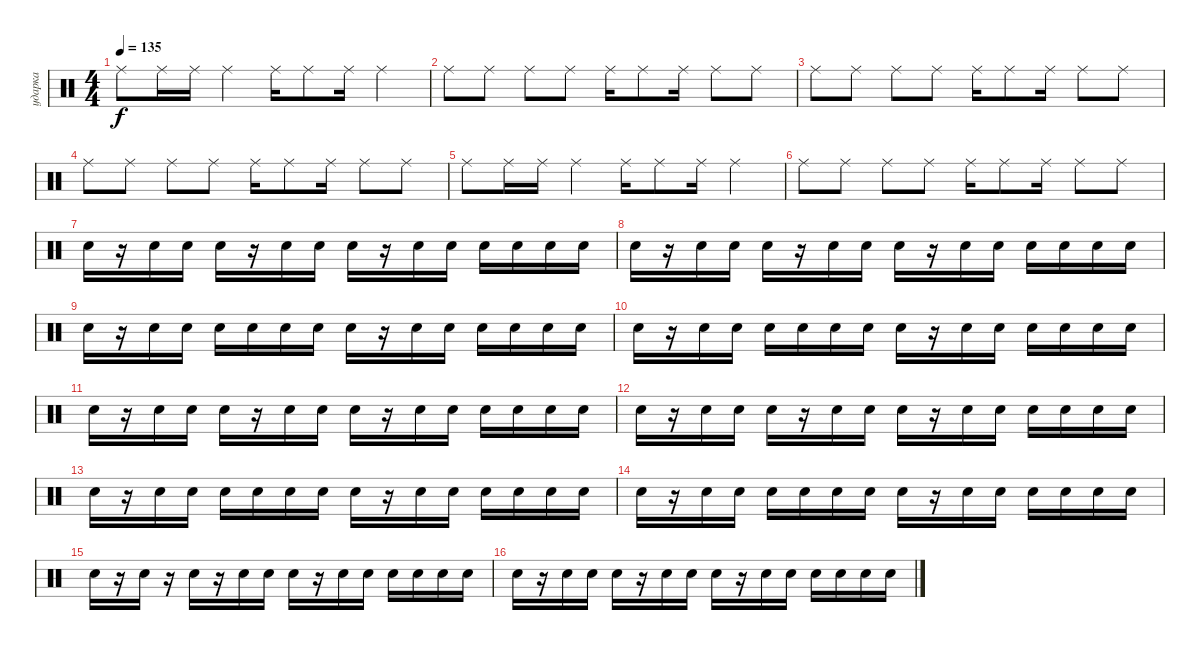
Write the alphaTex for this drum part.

\track ("ударка" "ударка") {instrument percussion}
\staff {score}
\articulation defaults
\ts (4 4)
\tempo 135
\clef neutral
\ks c "Ride (middle)".8{dy f} "Ride (middle)".16 "Ride (middle)".16 "Ride (middle)".4 "Ride (middle)".16 "Ride (middle)".8 "Ride (middle)".16 "Ride (middle)".4
|
"Ride (middle)".8 "Ride (middle)".8 "Ride (middle)".8 "Ride (middle)".8 "Ride (middle)".16 "Ride (middle)".8 "Ride (middle)".16 "Ride (middle)".8 "Ride (middle)".8 |
"Ride (middle)".8 "Ride (middle)".8 "Ride (middle)".8 "Ride (middle)".8 "Ride (middle)".16 "Ride (middle)".8 "Ride (middle)".16 "Ride (middle)".8 "Ride (middle)".8 |
"Ride (middle)".8 "Ride (middle)".8 "Ride (middle)".8 "Ride (middle)".8 "Ride (middle)".16 "Ride (middle)".8 "Ride (middle)".16 "Ride (middle)".8 "Ride (middle)".8 |
"Ride (middle)".8 "Ride (middle)".16 "Ride (middle)".16 "Ride (middle)".4 "Ride (middle)".16 "Ride (middle)".8 "Ride (middle)".16 "Ride (middle)".4 |
"Ride (middle)".8 "Ride (middle)".8 "Ride (middle)".8 "Ride (middle)".8 "Ride (middle)".16 "Ride (middle)".8 "Ride (middle)".16 "Ride (middle)".8 "Ride (middle)".8 |
"Snare (hit) 2".16 r.16 "Snare (hit) 2".16 "Snare (hit) 2".16 "Snare (hit) 2".16 r.16 "Snare (hit) 2".16 "Snare (hit) 2".16 "Snare (hit) 2".16 r.16 "Snare (hit) 2".16 "Snare (hit) 2".16 "Snare (hit) 2".16 "Snare (hit) 2".16 "Snare (hit) 2".16 "Snare (hit) 2".16 |
"Snare (hit) 2".16 r.16 "Snare (hit) 2".16 "Snare (hit) 2".16 "Snare (hit) 2".16 r.16 "Snare (hit) 2".16 "Snare (hit) 2".16 "Snare (hit) 2".16 r.16 "Snare (hit) 2".16 "Snare (hit) 2".16 "Snare (hit) 2".16 "Snare (hit) 2".16 "Snare (hit) 2".16 "Snare (hit) 2".16 |
"Snare (hit) 2".16 r.16 "Snare (hit) 2".16 "Snare (hit) 2".16 "Snare (hit) 2".16 "Snare (hit) 2".16 "Snare (hit) 2".16 "Snare (hit) 2".16 "Snare (hit) 2".16 r.16 "Snare (hit) 2".16 "Snare (hit) 2".16 "Snare (hit) 2".16 "Snare (hit) 2".16 "Snare (hit) 2".16 "Snare (hit) 2".16 |
"Snare (hit) 2".16 r.16 "Snare (hit) 2".16 "Snare (hit) 2".16 "Snare (hit) 2".16 "Snare (hit) 2".16 "Snare (hit) 2".16 "Snare (hit) 2".16 "Snare (hit) 2".16 r.16 "Snare (hit) 2".16 "Snare (hit) 2".16 "Snare (hit) 2".16 "Snare (hit) 2".16 "Snare (hit) 2".16 "Snare (hit) 2".16 |
"Snare (hit) 2".16 r.16 "Snare (hit) 2".16 "Snare (hit) 2".16 "Snare (hit) 2".16 r.16 "Snare (hit) 2".16 "Snare (hit) 2".16 "Snare (hit) 2".16 r.16 "Snare (hit) 2".16 "Snare (hit) 2".16 "Snare (hit) 2".16 "Snare (hit) 2".16 "Snare (hit) 2".16 "Snare (hit) 2".16 |
"Snare (hit) 2".16 r.16 "Snare (hit) 2".16 "Snare (hit) 2".16 "Snare (hit) 2".16 r.16 "Snare (hit) 2".16 "Snare (hit) 2".16 "Snare (hit) 2".16 r.16 "Snare (hit) 2".16 "Snare (hit) 2".16 "Snare (hit) 2".16 "Snare (hit) 2".16 "Snare (hit) 2".16 "Snare (hit) 2".16 |
"Snare (hit) 2".16 r.16 "Snare (hit) 2".16 "Snare (hit) 2".16 "Snare (hit) 2".16 "Snare (hit) 2".16 "Snare (hit) 2".16 "Snare (hit) 2".16 "Snare (hit) 2".16 r.16 "Snare (hit) 2".16 "Snare (hit) 2".16 "Snare (hit) 2".16 "Snare (hit) 2".16 "Snare (hit) 2".16 "Snare (hit) 2".16 |
"Snare (hit) 2".16 r.16 "Snare (hit) 2".16 "Snare (hit) 2".16 "Snare (hit) 2".16 "Snare (hit) 2".16 "Snare (hit) 2".16 "Snare (hit) 2".16 "Snare (hit) 2".16 r.16 "Snare (hit) 2".16 "Snare (hit) 2".16 "Snare (hit) 2".16 "Snare (hit) 2".16 "Snare (hit) 2".16 "Snare (hit) 2".16 |
"Snare (hit) 2".16 r.16 "Snare (hit) 2".16 r.16 "Snare (hit) 2".16 r.16 "Snare (hit) 2".16 "Snare (hit) 2".16 "Snare (hit) 2".16 r.16 "Snare (hit) 2".16 "Snare (hit) 2".16 "Snare (hit) 2".16 "Snare (hit) 2".16 "Snare (hit) 2".16 "Snare (hit) 2".16 |
"Snare (hit) 2".16 r.16 "Snare (hit) 2".16 "Snare (hit) 2".16 "Snare (hit) 2".16 r.16 "Snare (hit) 2".16 "Snare (hit) 2".16 "Snare (hit) 2".16 r.16 "Snare (hit) 2".16 "Snare (hit) 2".16 "Snare (hit) 2".16 "Snare (hit) 2".16 "Snare (hit) 2".16 "Snare (hit) 2".16
